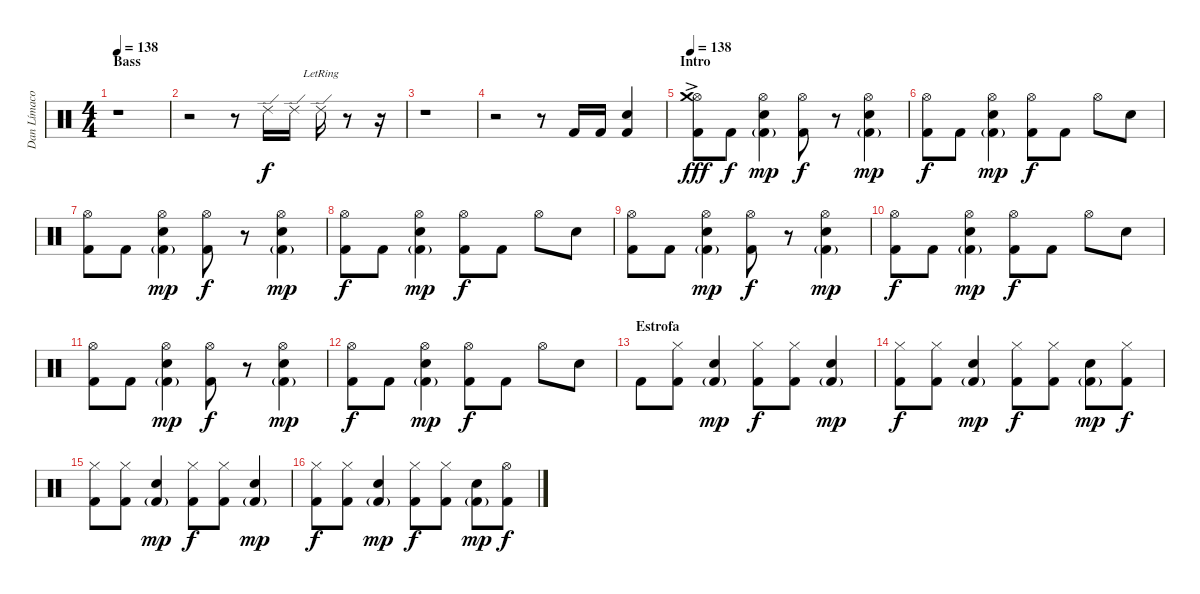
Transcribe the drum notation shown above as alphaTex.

\track ("Dan Límaco" "Dan Límaco") {instrument percussion}
\staff {score}
\articulation defaults
\ts (4 4)
\section ("" "Bass")
\tempo 138
\tempo 142
\tempo 138
\clef neutral
\ks c
r.1{dy f} |
r.2 r.8 "Ride (edge) 2".16 "Ride (edge) 2".16 "Ride (edge) 2"{lr}.16 r.8 r.16 |
r.1 |
r.2 r.8 "Kick (hit) 2".16 "Kick (hit) 2".16 ("Snare (hit) 2" "Kick (hit) 2").4 |
\section ("" "Intro")
\tempo 138
("Hi-Hat (open)" "Crash medium (hit)"{ac} "Kick (hit) 2").8{dy fff} "Kick (hit) 2".8{dy f} ("Hi-Hat (open)" "Snare (hit) 2" "Kick (hit) 2"{g}).4{dy mp} ("Hi-Hat (open)" "Kick (hit) 2").8{dy f} r.8 ("Hi-Hat (open)" "Snare (hit) 2" "Kick (hit) 2"{g}).4{dy mp} |
("Hi-Hat (open)" "Kick (hit) 2").8{dy f} "Kick (hit) 2".8 ("Hi-Hat (open)" "Snare (hit) 2" "Kick (hit) 2"{g}).4{dy mp} ("Hi-Hat (open)" "Kick (hit) 2").8{dy f} "Kick (hit) 2".8 "Hi-Hat (open)".8 "Snare (hit) 2".8 |
("Hi-Hat (open)" "Kick (hit) 2").8 "Kick (hit) 2".8 ("Hi-Hat (open)" "Snare (hit) 2" "Kick (hit) 2"{g}).4{dy mp} ("Hi-Hat (open)" "Kick (hit) 2").8{dy f} r.8 ("Hi-Hat (open)" "Snare (hit) 2" "Kick (hit) 2"{g}).4{dy mp} |
("Hi-Hat (open)" "Kick (hit) 2").8{dy f} "Kick (hit) 2".8 ("Hi-Hat (open)" "Snare (hit) 2" "Kick (hit) 2"{g}).4{dy mp} ("Hi-Hat (open)" "Kick (hit) 2").8{dy f} "Kick (hit) 2".8 "Hi-Hat (open)".8 "Snare (hit) 2".8 |
("Hi-Hat (open)" "Kick (hit) 2").8 "Kick (hit) 2".8 ("Hi-Hat (open)" "Snare (hit) 2" "Kick (hit) 2"{g}).4{dy mp} ("Hi-Hat (open)" "Kick (hit) 2").8{dy f} r.8 ("Hi-Hat (open)" "Snare (hit) 2" "Kick (hit) 2"{g}).4{dy mp} |
("Hi-Hat (open)" "Kick (hit) 2").8{dy f} "Kick (hit) 2".8 ("Hi-Hat (open)" "Snare (hit) 2" "Kick (hit) 2"{g}).4{dy mp} ("Hi-Hat (open)" "Kick (hit) 2").8{dy f} "Kick (hit) 2".8 "Hi-Hat (open)".8 "Snare (hit) 2".8 |
("Hi-Hat (open)" "Kick (hit) 2").8 "Kick (hit) 2".8 ("Hi-Hat (open)" "Snare (hit) 2" "Kick (hit) 2"{g}).4{dy mp} ("Hi-Hat (open)" "Kick (hit) 2").8{dy f} r.8 ("Hi-Hat (open)" "Snare (hit) 2" "Kick (hit) 2"{g}).4{dy mp} |
("Hi-Hat (open)" "Kick (hit) 2").8{dy f} "Kick (hit) 2".8 ("Hi-Hat (open)" "Snare (hit) 2" "Kick (hit) 2"{g}).4{dy mp} ("Hi-Hat (open)" "Kick (hit) 2").8{dy f} "Kick (hit) 2".8 "Hi-Hat (open)".8 "Snare (hit) 2".8 |
\section ("" "Estrofa")
"Kick (hit) 2".8 ("Hi-Hat (closed)" "Kick (hit) 2").8 ("Snare (hit) 2" "Kick (hit) 2"{g}).4{dy mp} ("Hi-Hat (closed)" "Kick (hit) 2").8{dy f} ("Hi-Hat (closed)" "Kick (hit) 2").8 ("Snare (hit) 2" "Kick (hit) 2"{g}).4{dy mp} |
("Hi-Hat (closed)" "Kick (hit) 2").8{dy f} ("Hi-Hat (closed)" "Kick (hit) 2").8 ("Snare (hit) 2" "Kick (hit) 2"{g}).4{dy mp} ("Hi-Hat (closed)" "Kick (hit) 2").8{dy f} ("Hi-Hat (closed)" "Kick (hit) 2").8 ("Snare (hit) 2" "Kick (hit) 2"{g}).8{dy mp} ("Hi-Hat (closed)" "Kick (hit) 2").8{dy f} |
("Hi-Hat (closed)" "Kick (hit) 2").8 ("Hi-Hat (closed)" "Kick (hit) 2").8 ("Snare (hit) 2" "Kick (hit) 2"{g}).4{dy mp} ("Hi-Hat (closed)" "Kick (hit) 2").8{dy f} ("Hi-Hat (closed)" "Kick (hit) 2").8 ("Snare (hit) 2" "Kick (hit) 2"{g}).4{dy mp} |
("Hi-Hat (closed)" "Kick (hit) 2").8{dy f} ("Hi-Hat (closed)" "Kick (hit) 2").8 ("Snare (hit) 2" "Kick (hit) 2"{g}).4{dy mp} ("Hi-Hat (closed)" "Kick (hit) 2").8{dy f} ("Hi-Hat (closed)" "Kick (hit) 2").8 ("Snare (hit) 2" "Kick (hit) 2"{g}).8{dy mp} ("Hi-Hat (open)" "Kick (hit) 2").8{dy f}
